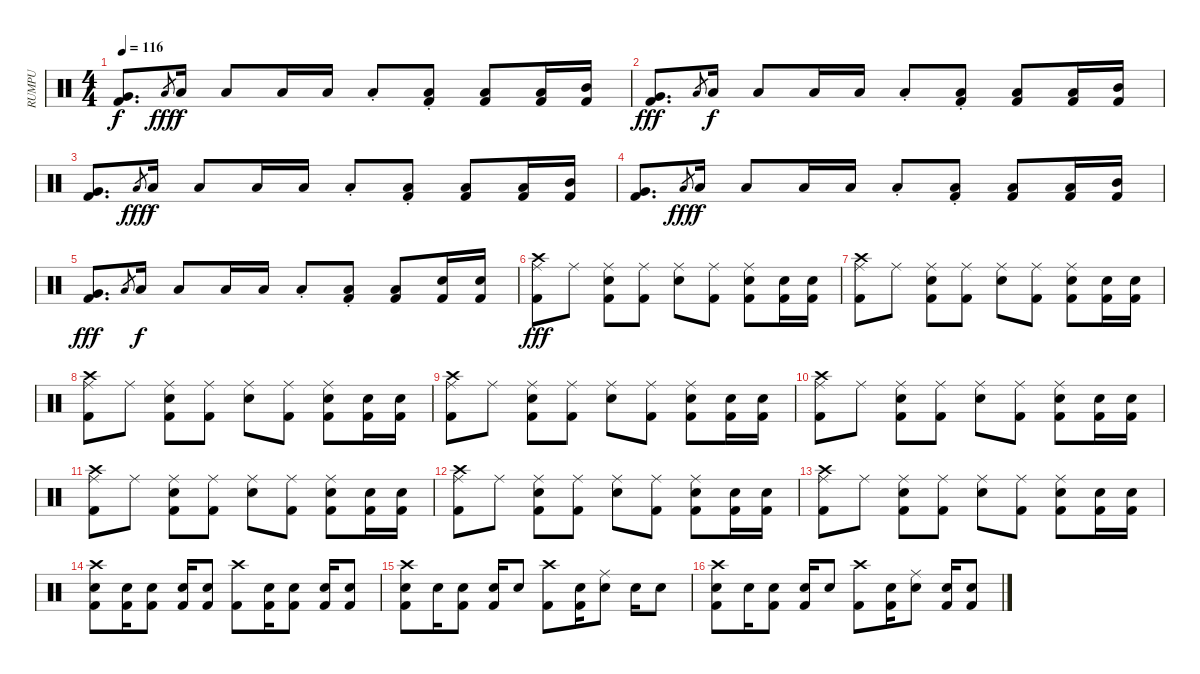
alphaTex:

\track ("RUMPU" "RUMPU") {instrument percussion}
\staff {score}
\articulation defaults
\ts (4 4)
\tempo 116
\clef neutral
\ks c
("Very Low Tom (hit)" "Kick (hit) 2").8{d dy f} "Low Floor Tom (hit)".8{gr dy fff} "Low Floor Tom (hit)".16{dy f} "Low Floor Tom (hit)".8 "Low Floor Tom (hit)".16 "Low Floor Tom (hit)".16 "Low Floor Tom (hit)"{st}.8 ("Low Floor Tom (hit)"{st} "Kick (hit) 2").8 ("Low Floor Tom (hit)" "Kick (hit) 2").8 ("Low Tom (hit)" "Kick (hit) 2").16 ("Mid Tom (hit)" "Kick (hit) 2").16 |
("Very Low Tom (hit)" "Kick (hit) 2").8{d dy fff} "Low Floor Tom (hit)".8{gr} "Low Floor Tom (hit)".16{dy f} "Low Floor Tom (hit)".8 "Low Floor Tom (hit)".16 "Low Floor Tom (hit)".16 "Low Floor Tom (hit)"{st}.8 ("Low Floor Tom (hit)"{st} "Kick (hit) 2").8 ("Low Floor Tom (hit)" "Kick (hit) 2").8 ("Low Tom (hit)" "Kick (hit) 2").16 ("Mid Tom (hit)" "Kick (hit) 2").16 |
("Very Low Tom (hit)" "Kick (hit) 2").8{d} "Low Floor Tom (hit)".8{gr dy fff} "Low Floor Tom (hit)".16{dy f} "Low Floor Tom (hit)".8 "Low Floor Tom (hit)".16 "Low Floor Tom (hit)".16 "Low Floor Tom (hit)"{st}.8 ("Low Floor Tom (hit)"{st} "Kick (hit) 2").8 ("Low Floor Tom (hit)" "Kick (hit) 2").8 ("Low Tom (hit)" "Kick (hit) 2").16 ("Mid Tom (hit)" "Kick (hit) 2").16 |
("Very Low Tom (hit)" "Kick (hit) 2").8{d} "Low Floor Tom (hit)".8{gr dy fff} "Low Floor Tom (hit)".16{dy f} "Low Floor Tom (hit)".8 "Low Floor Tom (hit)".16 "Low Floor Tom (hit)".16 "Low Floor Tom (hit)"{st}.8 ("Low Floor Tom (hit)"{st} "Kick (hit) 2").8 ("Low Floor Tom (hit)" "Kick (hit) 2").8 ("Low Tom (hit)" "Kick (hit) 2").16 ("Mid Tom (hit)" "Kick (hit) 2").16 |
("Very Low Tom (hit)" "Kick (hit) 2").8{d dy fff} "Low Floor Tom (hit)".8{gr} "Low Floor Tom (hit)".16{dy f} "Low Floor Tom (hit)".8 "Low Floor Tom (hit)".16 "Low Floor Tom (hit)".16 "Low Floor Tom (hit)"{st}.8 ("Low Floor Tom (hit)"{st} "Kick (hit) 2").8 ("Low Floor Tom (hit)" "Kick (hit) 2").8 ("Electric Snare (hit)" "Kick (hit) 2").16 ("Electric Snare (hit)" "Kick (hit) 2").16 |
("Crash high (hit)" "Ride (middle)" "Kick (hit) 2").8{dy fff} "Ride (middle)".8 ("Electric Snare (hit)" "Ride (middle)" "Kick (hit) 2").8 ("Ride (middle)" "Kick (hit) 2").8 ("Electric Snare (hit)" "Ride (middle)").8 ("Ride (middle)" "Kick (hit) 2").8 ("Electric Snare (hit)" "Ride (middle)" "Kick (hit) 2").8 ("Electric Snare (hit)" "Kick (hit) 2").16 ("Electric Snare (hit)" "Kick (hit) 2").16 |
("Crash high (hit)" "Ride (middle)" "Kick (hit) 2").8 "Ride (middle)".8 ("Electric Snare (hit)" "Ride (middle)" "Kick (hit) 2").8 ("Ride (middle)" "Kick (hit) 2").8 ("Electric Snare (hit)" "Ride (middle)").8 ("Ride (middle)" "Kick (hit) 2").8 ("Electric Snare (hit)" "Ride (middle)" "Kick (hit) 2").8 ("Electric Snare (hit)" "Kick (hit) 2").16 ("Electric Snare (hit)" "Kick (hit) 2").16 |
("Crash high (hit)" "Ride (middle)" "Kick (hit) 2").8 "Ride (middle)".8 ("Electric Snare (hit)" "Ride (middle)" "Kick (hit) 2").8 ("Ride (middle)" "Kick (hit) 2").8 ("Electric Snare (hit)" "Ride (middle)").8 ("Ride (middle)" "Kick (hit) 2").8 ("Electric Snare (hit)" "Ride (middle)" "Kick (hit) 2").8 ("Electric Snare (hit)" "Kick (hit) 2").16 ("Electric Snare (hit)" "Kick (hit) 2").16 |
("Crash high (hit)" "Ride (middle)" "Kick (hit) 2").8 "Ride (middle)".8 ("Electric Snare (hit)" "Ride (middle)" "Kick (hit) 2").8 ("Ride (middle)" "Kick (hit) 2").8 ("Electric Snare (hit)" "Ride (middle)").8 ("Ride (middle)" "Kick (hit) 2").8 ("Electric Snare (hit)" "Ride (middle)" "Kick (hit) 2").8 ("Electric Snare (hit)" "Kick (hit) 2").16 ("Electric Snare (hit)" "Kick (hit) 2").16 |
("Crash high (hit)" "Ride (middle)" "Kick (hit) 2").8 "Ride (middle)".8 ("Electric Snare (hit)" "Ride (middle)" "Kick (hit) 2").8 ("Ride (middle)" "Kick (hit) 2").8 ("Electric Snare (hit)" "Ride (middle)").8 ("Ride (middle)" "Kick (hit) 2").8 ("Electric Snare (hit)" "Ride (middle)" "Kick (hit) 2").8 ("Electric Snare (hit)" "Kick (hit) 2").16 ("Electric Snare (hit)" "Kick (hit) 2").16 |
("Crash high (hit)" "Ride (middle)" "Kick (hit) 2").8 "Ride (middle)".8 ("Electric Snare (hit)" "Ride (middle)" "Kick (hit) 2").8 ("Ride (middle)" "Kick (hit) 2").8 ("Electric Snare (hit)" "Ride (middle)").8 ("Ride (middle)" "Kick (hit) 2").8 ("Electric Snare (hit)" "Ride (middle)" "Kick (hit) 2").8 ("Electric Snare (hit)" "Kick (hit) 2").16 ("Electric Snare (hit)" "Kick (hit) 2").16 |
("Crash high (hit)" "Ride (middle)" "Kick (hit) 2").8 "Ride (middle)".8 ("Electric Snare (hit)" "Ride (middle)" "Kick (hit) 2").8 ("Ride (middle)" "Kick (hit) 2").8 ("Electric Snare (hit)" "Ride (middle)").8 ("Ride (middle)" "Kick (hit) 2").8 ("Electric Snare (hit)" "Ride (middle)" "Kick (hit) 2").8 ("Electric Snare (hit)" "Kick (hit) 2").16 ("Electric Snare (hit)" "Kick (hit) 2").16 |
("Crash high (hit)" "Ride (middle)" "Kick (hit) 2").8 "Ride (middle)".8 ("Electric Snare (hit)" "Ride (middle)" "Kick (hit) 2").8 ("Ride (middle)" "Kick (hit) 2").8 ("Electric Snare (hit)" "Ride (middle)").8 ("Ride (middle)" "Kick (hit) 2").8 ("Electric Snare (hit)" "Ride (middle)" "Kick (hit) 2").8 ("Electric Snare (hit)" "Kick (hit) 2").16 ("Electric Snare (hit)" "Kick (hit) 2").16 |
("Electric Snare (hit)" "Crash high (hit)" "Kick (hit) 2").8 ("Electric Snare (hit)" "Kick (hit) 2").16 ("Electric Snare (hit)" "Kick (hit) 2").8 ("Electric Snare (hit)" "Kick (hit) 2").16 ("Electric Snare (hit)" "Kick (hit) 2").8 ("Crash high (hit)" "Kick (hit) 2").8 ("Electric Snare (hit)" "Kick (hit) 2").16 ("Electric Snare (hit)" "Kick (hit) 2").8 ("Electric Snare (hit)" "Kick (hit) 2").16 ("Electric Snare (hit)" "Kick (hit) 2").8 |
("Electric Snare (hit)" "Crash high (hit)" "Kick (hit) 2").8 "Electric Snare (hit)".16 ("Electric Snare (hit)" "Kick (hit) 2").8 ("Electric Snare (hit)" "Kick (hit) 2").16 "Electric Snare (hit)".8 ("Crash high (hit)" "Kick (hit) 2").8 ("Electric Snare (hit)" "Kick (hit) 2").16 ("Electric Snare (hit)" "Ride (middle)").8 "Electric Snare (hit)".16 "Electric Snare (hit)".8 |
("Electric Snare (hit)" "Crash high (hit)" "Kick (hit) 2").8 "Electric Snare (hit)".16 ("Electric Snare (hit)" "Kick (hit) 2").8 ("Electric Snare (hit)" "Kick (hit) 2").16 "Electric Snare (hit)".8 ("Crash high (hit)" "Kick (hit) 2").8 ("Electric Snare (hit)" "Kick (hit) 2").16 ("Electric Snare (hit)" "Ride (middle)").8 ("Electric Snare (hit)" "Kick (hit) 2").16 ("Electric Snare (hit)" "Kick (hit) 2").8
